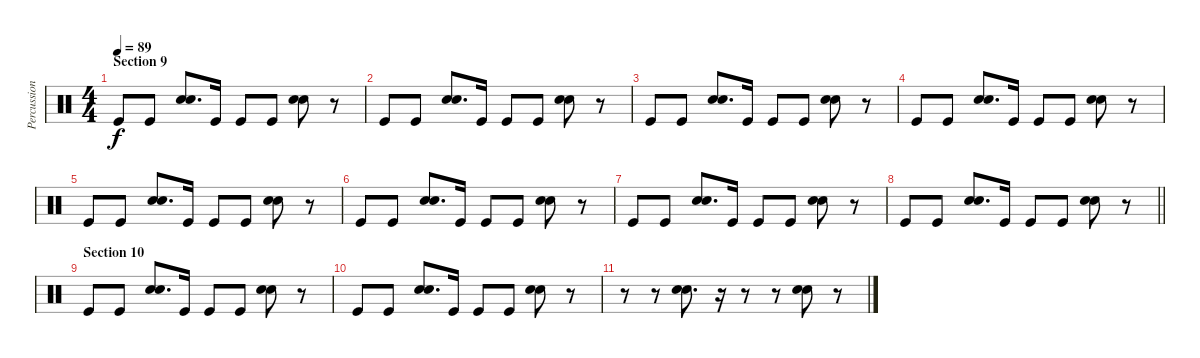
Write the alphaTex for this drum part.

\track ("Percussion" "Percussion") {instrument percussion}
\staff {score}
\articulation defaults
\ts (4 4)
\section ("" "Section 9")
\tempo 89
\clef neutral
\ks c "Kick (hit)".8{dy f} "Kick (hit)".8
("Electric Snare (hit)" "Hand Clap (hit)").8{d} "Kick (hit)".16 "Kick (hit)".8 "Kick (hit)".8 ("Electric Snare (hit)" "Hand Clap (hit)").8 r.8 |
"Kick (hit)".8 "Kick (hit)".8 ("Electric Snare (hit)" "Hand Clap (hit)").8{d} "Kick (hit)".16 "Kick (hit)".8 "Kick (hit)".8 ("Electric Snare (hit)" "Hand Clap (hit)").8 r.8 |
"Kick (hit)".8 "Kick (hit)".8 ("Electric Snare (hit)" "Hand Clap (hit)").8{d} "Kick (hit)".16 "Kick (hit)".8 "Kick (hit)".8 ("Electric Snare (hit)" "Hand Clap (hit)").8 r.8 |
"Kick (hit)".8 "Kick (hit)".8 ("Electric Snare (hit)" "Hand Clap (hit)").8{d} "Kick (hit)".16 "Kick (hit)".8 "Kick (hit)".8 ("Electric Snare (hit)" "Hand Clap (hit)").8 r.8 |
"Kick (hit)".8 "Kick (hit)".8 ("Electric Snare (hit)" "Hand Clap (hit)").8{d} "Kick (hit)".16 "Kick (hit)".8 "Kick (hit)".8 ("Electric Snare (hit)" "Hand Clap (hit)").8 r.8 |
"Kick (hit)".8 "Kick (hit)".8 ("Electric Snare (hit)" "Hand Clap (hit)").8{d} "Kick (hit)".16 "Kick (hit)".8 "Kick (hit)".8 ("Electric Snare (hit)" "Hand Clap (hit)").8 r.8 |
"Kick (hit)".8 "Kick (hit)".8 ("Electric Snare (hit)" "Hand Clap (hit)").8{d} "Kick (hit)".16 "Kick (hit)".8 "Kick (hit)".8 ("Electric Snare (hit)" "Hand Clap (hit)").8 r.8 |
\barLineRight lightlight "Kick (hit)".8 "Kick (hit)".8
("Electric Snare (hit)" "Hand Clap (hit)").8{d} "Kick (hit)".16 "Kick (hit)".8 "Kick (hit)".8 ("Electric Snare (hit)" "Hand Clap (hit)").8 r.8 |
\section ("" "Section 10")
"Kick (hit)".8 "Kick (hit)".8 ("Electric Snare (hit)" "Hand Clap (hit)").8{d} "Kick (hit)".16 "Kick (hit)".8 "Kick (hit)".8 ("Electric Snare (hit)" "Hand Clap (hit)").8 r.8 |
"Kick (hit)".8 "Kick (hit)".8 ("Electric Snare (hit)" "Hand Clap (hit)").8{d} "Kick (hit)".16 "Kick (hit)".8 "Kick (hit)".8 ("Electric Snare (hit)" "Hand Clap (hit)").8 r.8 |
r.8 r.8 ("Electric Snare (hit)" "Hand Clap (hit)").8{d} r.16 r.8 r.8 ("Electric Snare (hit)" "Hand Clap (hit)").8 r.8
